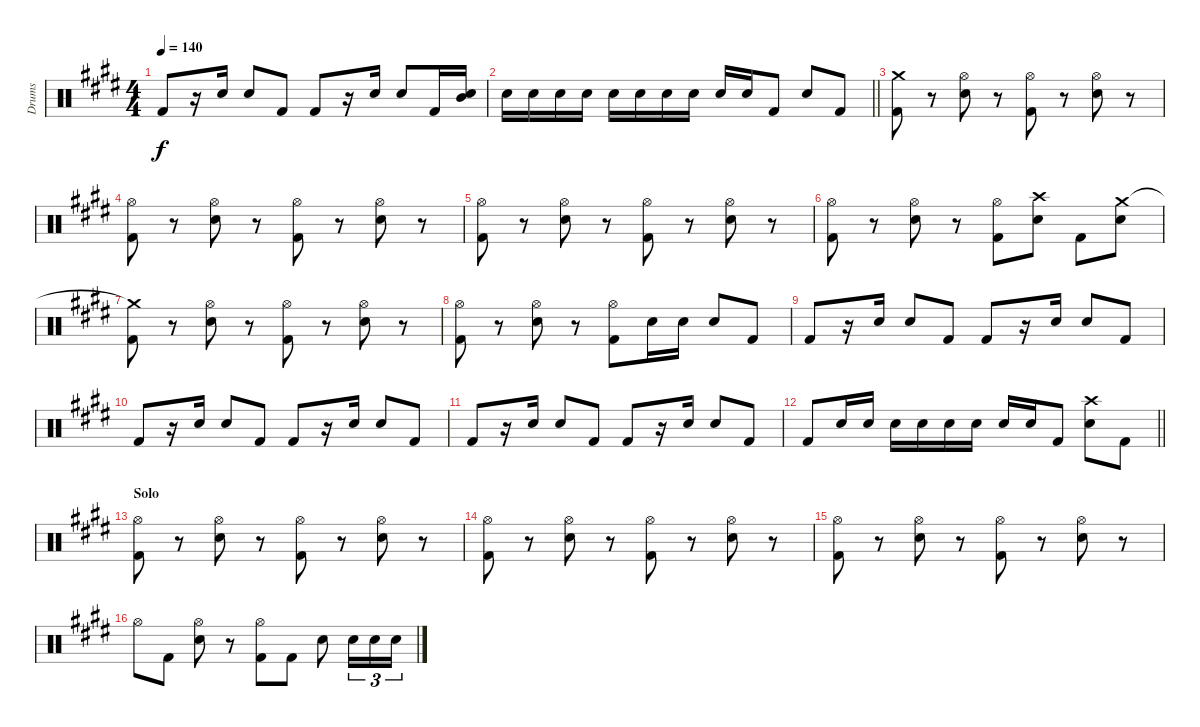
\track ("Drums" "Drums") {instrument percussion}
\staff {score}
\articulation defaults
\ts (4 4)
\tempo 140
\clef neutral
\ks c#minor "Kick (hit) 2".8{dy f}
r.16 "Electric Snare (hit)".16 "Electric Snare (hit)".8 "Kick (hit) 2".8 "Kick (hit) 2".8 r.16 "Electric Snare (hit)".16 "Electric Snare (hit)".8 "Kick (hit) 2".16 ("Mid Tom (hit)" "Electric Snare (hit)").16 |
\barLineRight lightlight "Electric Snare (hit)".16 "Electric Snare (hit)".16 "Electric Snare (hit)".16 "Electric Snare (hit)".16 "Electric Snare (hit)".16 "Electric Snare (hit)".16 "Electric Snare (hit)".16 "Electric Snare (hit)".16 "Electric Snare (hit)".16 "Electric Snare (hit)".16 "Kick (hit) 2".8 "Electric Snare (hit)".8 "Kick (hit) 2".8
|
("Crash medium (hit)" "Kick (hit) 2").8 r.8 ("Hi-Hat (open)" "Electric Snare (hit)").8 r.8 ("Hi-Hat (open)" "Kick (hit) 2").8 r.8 ("Hi-Hat (open)" "Electric Snare (hit)").8 r.8 |
\ks e
("Hi-Hat (open)" "Kick (hit) 2").8 r.8 ("Hi-Hat (open)" "Electric Snare (hit)").8 r.8 ("Hi-Hat (open)" "Kick (hit) 2").8 r.8 ("Hi-Hat (open)" "Electric Snare (hit)").8 r.8 |
\ks c#minor
("Hi-Hat (open)" "Kick (hit) 2").8 r.8 ("Hi-Hat (open)" "Electric Snare (hit)").8 r.8 ("Hi-Hat (open)" "Kick (hit) 2").8 r.8 ("Hi-Hat (open)" "Electric Snare (hit)").8 r.8 |
\ks e
("Hi-Hat (open)" "Kick (hit) 2").8 r.8 ("Hi-Hat (open)" "Electric Snare (hit)").8 r.8 ("Hi-Hat (open)" "Kick (hit) 2").8 ("Crash high (hit)" "Electric Snare (hit)").8 "Kick (hit) 2".8 ("Crash medium (hit)" "Electric Snare (hit)").8 |
\ks c#minor
("Crash medium (hit)"{t} "Kick (hit) 2").8 r.8 ("Hi-Hat (open)" "Electric Snare (hit)").8 r.8 ("Hi-Hat (open)" "Kick (hit) 2").8 r.8 ("Hi-Hat (open)" "Electric Snare (hit)").8 r.8 |
\ks e
("Hi-Hat (open)" "Kick (hit) 2").8 r.8 ("Hi-Hat (open)" "Electric Snare (hit)").8 r.8 ("Hi-Hat (open)" "Kick (hit) 2").8 "Electric Snare (hit)".16 "Electric Snare (hit)".16 "Electric Snare (hit)".8 "Kick (hit) 2".8 |
\ks c#minor "Kick (hit) 2".8
r.16 "Electric Snare (hit)".16 "Electric Snare (hit)".8 "Kick (hit) 2".8 "Kick (hit) 2".8 r.16 "Electric Snare (hit)".16 "Electric Snare (hit)".8 "Kick (hit) 2".8 |
"Kick (hit) 2".8 r.16 "Electric Snare (hit)".16 "Electric Snare (hit)".8 "Kick (hit) 2".8 "Kick (hit) 2".8 r.16 "Electric Snare (hit)".16 "Electric Snare (hit)".8 "Kick (hit) 2".8 |
"Kick (hit) 2".8 r.16 "Electric Snare (hit)".16 "Electric Snare (hit)".8 "Kick (hit) 2".8 "Kick (hit) 2".8 r.16 "Electric Snare (hit)".16 "Electric Snare (hit)".8 "Kick (hit) 2".8 |
\barLineRight lightlight "Kick (hit) 2".8 "Electric Snare (hit)".16 "Electric Snare (hit)".16 "Electric Snare (hit)".16 "Electric Snare (hit)".16 "Electric Snare (hit)".16 "Electric Snare (hit)".16 "Electric Snare (hit)".16 "Electric Snare (hit)".16 "Kick (hit) 2".8
("Crash high (hit)" "Electric Snare (hit)").8 "Kick (hit) 2".8 |
\section ("" "Solo")
("Hi-Hat (open)" "Kick (hit) 2").8 r.8 ("Hi-Hat (open)" "Electric Snare (hit)").8 r.8 ("Hi-Hat (open)" "Kick (hit) 2").8 r.8 ("Hi-Hat (open)" "Electric Snare (hit)").8 r.8 |
("Hi-Hat (open)" "Kick (hit) 2").8 r.8 ("Hi-Hat (open)" "Electric Snare (hit)").8 r.8 ("Hi-Hat (open)" "Kick (hit) 2").8 r.8 ("Hi-Hat (open)" "Electric Snare (hit)").8 r.8 |
("Hi-Hat (open)" "Kick (hit) 2").8 r.8 ("Hi-Hat (open)" "Electric Snare (hit)").8 r.8 ("Hi-Hat (open)" "Kick (hit) 2").8 r.8 ("Hi-Hat (open)" "Electric Snare (hit)").8 r.8 |
"Hi-Hat (open)".8 "Kick (hit) 2".8 ("Hi-Hat (open)" "Electric Snare (hit)").8 r.8 ("Hi-Hat (open)" "Kick (hit) 2").8 "Kick (hit) 2".8 "Electric Snare (hit)".8 "Electric Snare (hit)".16{tu (3 2)} "Electric Snare (hit)".16{tu (3 2)} "Electric Snare (hit)".16{tu (3 2)}
